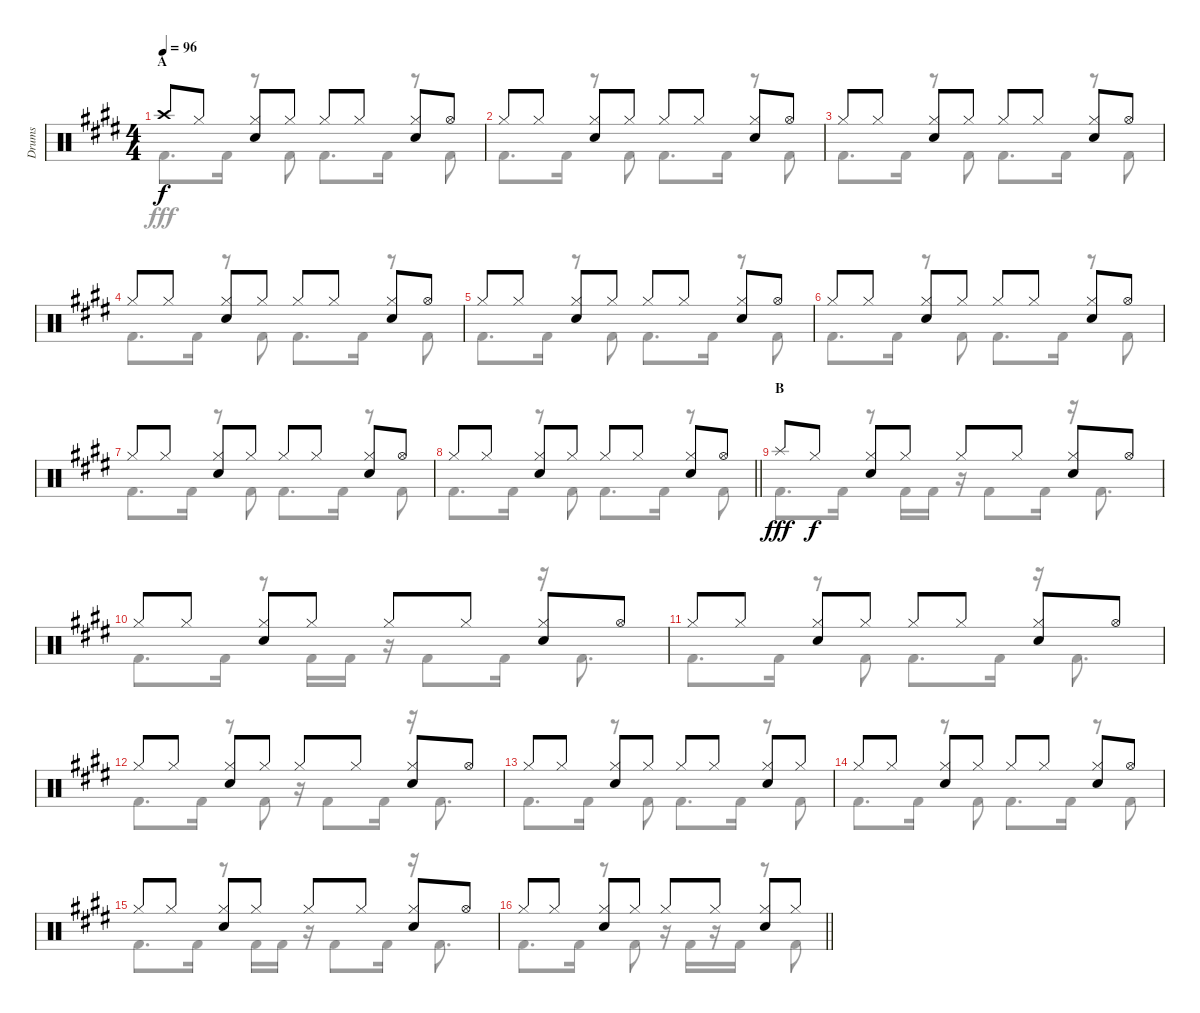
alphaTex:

\track ("Drums" "Drums") {instrument percussion}
\staff {score}
\articulation defaults
\voice
\ts (4 4)
\section ("" "A")
\tempo 96
\clef neutral
\ks e "Crash high (hit)".8{dy f} "Hi-Hat (closed)".8
("Hi-Hat (closed)" "Snare (hit) 2").8 "Hi-Hat (closed)".8 "Hi-Hat (closed)".8 "Hi-Hat (closed)".8 ("Hi-Hat (closed)" "Snare (hit) 2").8 "Hi-Hat (open)".8 |
"Hi-Hat (closed)".8 "Hi-Hat (closed)".8 ("Hi-Hat (closed)" "Snare (hit) 2").8 "Hi-Hat (closed)".8 "Hi-Hat (closed)".8 "Hi-Hat (closed)".8 ("Hi-Hat (closed)" "Snare (hit) 2").8 "Hi-Hat (open)".8 |
"Hi-Hat (closed)".8 "Hi-Hat (closed)".8 ("Hi-Hat (closed)" "Snare (hit) 2").8 "Hi-Hat (closed)".8 "Hi-Hat (closed)".8 "Hi-Hat (closed)".8 ("Hi-Hat (closed)" "Snare (hit) 2").8 "Hi-Hat (open)".8 |
"Hi-Hat (closed)".8 "Hi-Hat (closed)".8 ("Hi-Hat (closed)" "Snare (hit) 2").8 "Hi-Hat (closed)".8 "Hi-Hat (closed)".8 "Hi-Hat (closed)".8 ("Hi-Hat (closed)" "Snare (hit) 2").8 "Hi-Hat (open)".8 |
"Hi-Hat (closed)".8 "Hi-Hat (closed)".8 ("Hi-Hat (closed)" "Snare (hit) 2").8 "Hi-Hat (closed)".8 "Hi-Hat (closed)".8 "Hi-Hat (closed)".8 ("Hi-Hat (closed)" "Snare (hit) 2").8 "Hi-Hat (open)".8 |
"Hi-Hat (closed)".8 "Hi-Hat (closed)".8 ("Hi-Hat (closed)" "Snare (hit) 2").8 "Hi-Hat (closed)".8 "Hi-Hat (closed)".8 "Hi-Hat (closed)".8 ("Hi-Hat (closed)" "Snare (hit) 2").8 "Hi-Hat (open)".8 |
"Hi-Hat (closed)".8 "Hi-Hat (closed)".8 ("Hi-Hat (closed)" "Snare (hit) 2").8 "Hi-Hat (closed)".8 "Hi-Hat (closed)".8 "Hi-Hat (closed)".8 ("Hi-Hat (closed)" "Snare (hit) 2").8 "Hi-Hat (open)".8 |
\barLineRight lightlight "Hi-Hat (closed)".8 "Hi-Hat (closed)".8
("Hi-Hat (closed)" "Snare (hit) 2").8 "Hi-Hat (closed)".8 "Hi-Hat (closed)".8 "Hi-Hat (closed)".8 ("Hi-Hat (closed)" "Snare (hit) 2").8 "Hi-Hat (open)".8 |
\section ("" "B")
"Splash (hit)".8{dy fff} "Hi-Hat (closed)".8{dy f} ("Hi-Hat (closed)" "Snare (hit) 2").8 "Hi-Hat (closed)".8 "Hi-Hat (closed)".8 "Hi-Hat (closed)".8 ("Hi-Hat (closed)" "Snare (hit) 2").8 "Hi-Hat (open)".8 |
"Hi-Hat (closed)".8 "Hi-Hat (closed)".8 ("Hi-Hat (closed)" "Snare (hit) 2").8 "Hi-Hat (closed)".8 "Hi-Hat (closed)".8 "Hi-Hat (closed)".8 ("Hi-Hat (closed)" "Snare (hit) 2").8 "Hi-Hat (open)".8 |
"Hi-Hat (closed)".8 "Hi-Hat (closed)".8 ("Hi-Hat (closed)" "Snare (hit) 2").8 "Hi-Hat (closed)".8 "Hi-Hat (closed)".8 "Hi-Hat (closed)".8 ("Hi-Hat (closed)" "Snare (hit) 2").8 "Hi-Hat (open)".8 |
"Hi-Hat (closed)".8 "Hi-Hat (closed)".8 ("Hi-Hat (closed)" "Snare (hit) 2").8 "Hi-Hat (closed)".8 "Hi-Hat (closed)".8 "Hi-Hat (closed)".8 ("Hi-Hat (closed)" "Snare (hit) 2").8 "Hi-Hat (open)".8 |
"Hi-Hat (closed)".8 "Hi-Hat (closed)".8 ("Hi-Hat (closed)" "Snare (hit) 2").8 "Hi-Hat (closed)".8 "Hi-Hat (closed)".8 "Hi-Hat (closed)".8 ("Hi-Hat (closed)" "Snare (hit) 2").8 "Hi-Hat (closed)".8 |
"Hi-Hat (closed)".8 "Hi-Hat (closed)".8 ("Hi-Hat (closed)" "Snare (hit) 2").8 "Hi-Hat (closed)".8 "Hi-Hat (closed)".8 "Hi-Hat (closed)".8 ("Hi-Hat (closed)" "Snare (hit) 2").8 "Hi-Hat (open)".8 |
"Hi-Hat (closed)".8 "Hi-Hat (closed)".8 ("Hi-Hat (closed)" "Snare (hit) 2").8 "Hi-Hat (closed)".8 "Hi-Hat (closed)".8 "Hi-Hat (closed)".8 ("Hi-Hat (closed)" "Snare (hit) 2").8 "Hi-Hat (open)".8 |
\barLineRight lightlight "Hi-Hat (closed)".8 "Hi-Hat (closed)".8
("Hi-Hat (closed)" "Snare (hit) 2").8 "Hi-Hat (closed)".8 "Hi-Hat (closed)".8 "Hi-Hat (closed)".8 ("Hi-Hat (closed)" "Snare (hit) 2").8 "Hi-Hat (closed)".8
\voice
\clef neutral
\ottava regular
\simile none
\ks e "Kick (hit) 2".8{d dy fff} "Kick (hit) 2".16
r.8 "Kick (hit) 2".8 "Kick (hit) 2".8{d} "Kick (hit) 2".16 r.8 "Kick (hit) 2".8 |
"Kick (hit) 2".8{d} "Kick (hit) 2".16 r.8 "Kick (hit) 2".8 "Kick (hit) 2".8{d} "Kick (hit) 2".16 r.8 "Kick (hit) 2".8 |
"Kick (hit) 2".8{d} "Kick (hit) 2".16 r.8 "Kick (hit) 2".8 "Kick (hit) 2".8{d} "Kick (hit) 2".16 r.8 "Kick (hit) 2".8 |
"Kick (hit) 2".8{d} "Kick (hit) 2".16 r.8 "Kick (hit) 2".8 "Kick (hit) 2".8{d} "Kick (hit) 2".16 r.8 "Kick (hit) 2".8 |
"Kick (hit) 2".8{d} "Kick (hit) 2".16 r.8 "Kick (hit) 2".8 "Kick (hit) 2".8{d} "Kick (hit) 2".16 r.8 "Kick (hit) 2".8 |
"Kick (hit) 2".8{d} "Kick (hit) 2".16 r.8 "Kick (hit) 2".8 "Kick (hit) 2".8{d} "Kick (hit) 2".16 r.8 "Kick (hit) 2".8 |
"Kick (hit) 2".8{d} "Kick (hit) 2".16 r.8 "Kick (hit) 2".8 "Kick (hit) 2".8{d} "Kick (hit) 2".16 r.8 "Kick (hit) 2".8 |
\barLineRight lightlight "Kick (hit) 2".8{d} "Kick (hit) 2".16
r.8 "Kick (hit) 2".8 "Kick (hit) 2".8{d} "Kick (hit) 2".16 r.8 "Kick (hit) 2".8 |
"Kick (hit) 2".8{d} "Kick (hit) 2".16 r.8 "Kick (hit) 2".16 "Kick (hit) 2".16 r.16 "Kick (hit) 2".8 "Kick (hit) 2".16 r.16 "Kick (hit) 2".8{d} |
"Kick (hit) 2".8{d} "Kick (hit) 2".16 r.8 "Kick (hit) 2".16 "Kick (hit) 2".16 r.16 "Kick (hit) 2".8 "Kick (hit) 2".16 r.16 "Kick (hit) 2".8{d} |
"Kick (hit) 2".8{d} "Kick (hit) 2".16 r.8 "Kick (hit) 2".8 "Kick (hit) 2".8{d} "Kick (hit) 2".16 r.16 "Kick (hit) 2".8{d} |
"Kick (hit) 2".8{d} "Kick (hit) 2".16 r.8 "Kick (hit) 2".8 r.16 "Kick (hit) 2".8 "Kick (hit) 2".16 r.16 "Kick (hit) 2".8{d} |
"Kick (hit) 2".8{d} "Kick (hit) 2".16 r.8 "Kick (hit) 2".8 "Kick (hit) 2".8{d} "Kick (hit) 2".16 r.8 "Kick (hit) 2".8 |
"Kick (hit) 2".8{d} "Kick (hit) 2".16 r.8 "Kick (hit) 2".8 "Kick (hit) 2".8{d} "Kick (hit) 2".16 r.8 "Kick (hit) 2".8 |
"Kick (hit) 2".8{d} "Kick (hit) 2".16 r.8 "Kick (hit) 2".16 "Kick (hit) 2".16 r.16 "Kick (hit) 2".8 "Kick (hit) 2".16 r.16 "Kick (hit) 2".8{d} |
\barLineRight lightlight "Kick (hit) 2".8{d} "Kick (hit) 2".16
r.8 "Kick (hit) 2".8 r.16 "Kick (hit) 2".16 r.16 "Kick (hit) 2".16 r.8 "Kick (hit) 2".8
